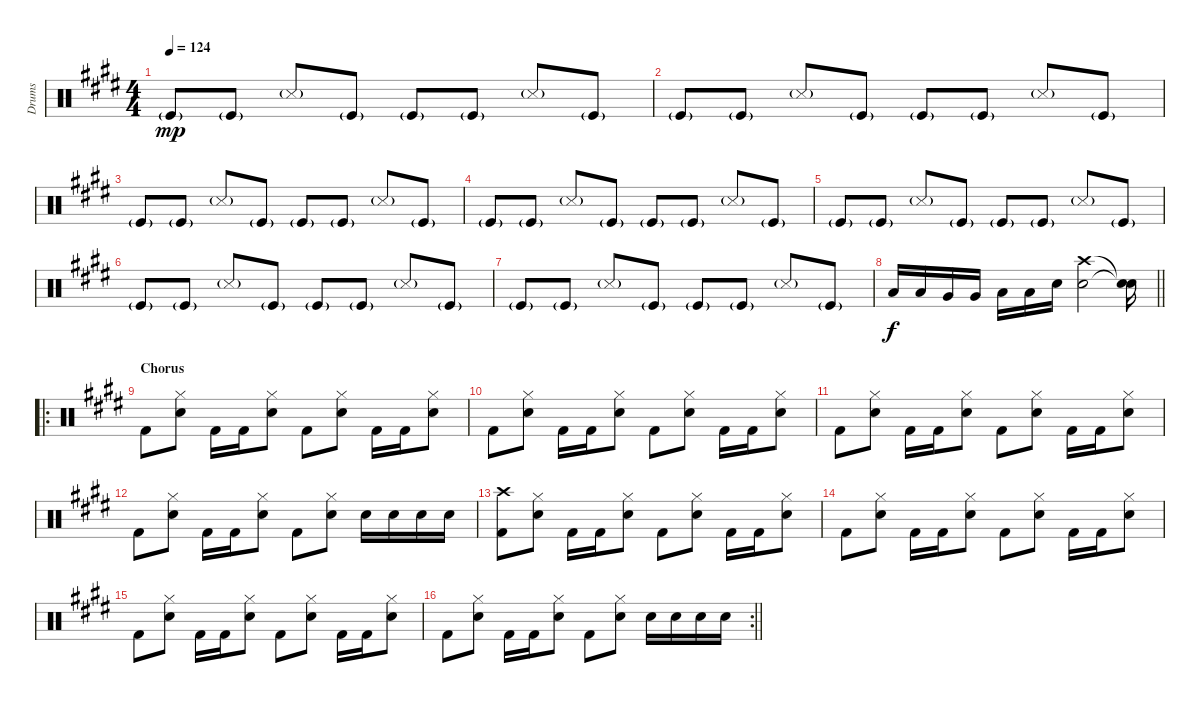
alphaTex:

\track ("Drums" "Drums") {instrument percussion}
\staff {score}
\articulation defaults
\ts (4 4)
\tempo 124
\clef neutral
\ks c#minor "Kick (hit)"{g}.8{dy mp} "Kick (hit)"{g}.8 "Metronome (hit)"{g}.8 "Kick (hit)"{g}.8 "Kick (hit)"{g}.8 "Kick (hit)"{g}.8 "Metronome (hit)"{g}.8 "Kick (hit)"{g}.8
|
"Kick (hit)"{g}.8 "Kick (hit)"{g}.8 "Metronome (hit)"{g}.8 "Kick (hit)"{g}.8 "Kick (hit)"{g}.8 "Kick (hit)"{g}.8 "Metronome (hit)"{g}.8 "Kick (hit)"{g}.8 |
"Kick (hit)"{g}.8 "Kick (hit)"{g}.8 "Metronome (hit)"{g}.8 "Kick (hit)"{g}.8 "Kick (hit)"{g}.8 "Kick (hit)"{g}.8 "Metronome (hit)"{g}.8 "Kick (hit)"{g}.8 |
"Kick (hit)"{g}.8 "Kick (hit)"{g}.8 "Metronome (hit)"{g}.8 "Kick (hit)"{g}.8 "Kick (hit)"{g}.8 "Kick (hit)"{g}.8 "Metronome (hit)"{g}.8 "Kick (hit)"{g}.8 |
"Kick (hit)"{g}.8 "Kick (hit)"{g}.8 "Metronome (hit)"{g}.8 "Kick (hit)"{g}.8 "Kick (hit)"{g}.8 "Kick (hit)"{g}.8 "Metronome (hit)"{g}.8 "Kick (hit)"{g}.8 |
"Kick (hit)"{g}.8 "Kick (hit)"{g}.8 "Metronome (hit)"{g}.8 "Kick (hit)"{g}.8 "Kick (hit)"{g}.8 "Kick (hit)"{g}.8 "Metronome (hit)"{g}.8 "Kick (hit)"{g}.8 |
"Kick (hit)"{g}.8 "Kick (hit)"{g}.8 "Metronome (hit)"{g}.8 "Kick (hit)"{g}.8 "Kick (hit)"{g}.8 "Kick (hit)"{g}.8 "Metronome (hit)"{g}.8 "Kick (hit)"{g}.8 |
\barLineRight lightlight "Low Tom (hit)".16{dy f} "Low Tom (hit)".16 "Very Low Tom (hit)".16 "Very Low Tom (hit)".16 "Low Floor Tom (hit)".16 "Low Floor Tom (hit)".16 "Snare (hit) 2".16
("Snare (hit) 2" "Crash high (hit)").2 ("Snare (hit)"{t} "Snare (hit)"{t}).16 |
\ro
\section ("" "Chorus")
"Kick (hit) 2".8 ("Snare (hit) 2" "Hi-Hat (closed)").8 "Kick (hit) 2".16 "Kick (hit) 2".16 ("Snare (hit) 2" "Hi-Hat (closed)").8 "Kick (hit) 2".8 ("Snare (hit) 2" "Hi-Hat (closed)").8 "Kick (hit) 2".16 "Kick (hit) 2".16 ("Snare (hit) 2" "Hi-Hat (closed)").8 |
"Kick (hit) 2".8 ("Snare (hit) 2" "Hi-Hat (closed)").8 "Kick (hit) 2".16 "Kick (hit) 2".16 ("Snare (hit) 2" "Hi-Hat (closed)").8 "Kick (hit) 2".8 ("Snare (hit) 2" "Hi-Hat (closed)").8 "Kick (hit) 2".16 "Kick (hit) 2".16 ("Snare (hit) 2" "Hi-Hat (closed)").8 |
"Kick (hit) 2".8 ("Snare (hit) 2" "Hi-Hat (closed)").8 "Kick (hit) 2".16 "Kick (hit) 2".16 ("Snare (hit) 2" "Hi-Hat (closed)").8 "Kick (hit) 2".8 ("Snare (hit) 2" "Hi-Hat (closed)").8 "Kick (hit) 2".16 "Kick (hit) 2".16 ("Snare (hit) 2" "Hi-Hat (closed)").8 |
"Kick (hit) 2".8 ("Snare (hit) 2" "Hi-Hat (closed)").8 "Kick (hit) 2".16 "Kick (hit) 2".16 ("Snare (hit) 2" "Hi-Hat (closed)").8 "Kick (hit) 2".8 ("Snare (hit) 2" "Hi-Hat (closed)").8 "Electric Snare (hit)".16 "Electric Snare (hit)".16 "Electric Snare (hit)".16 "Electric Snare (hit)".16 |
("Kick (hit) 2" "Crash high (hit)").8 ("Snare (hit) 2" "Hi-Hat (closed)").8 "Kick (hit) 2".16 "Kick (hit) 2".16 ("Snare (hit) 2" "Hi-Hat (closed)").8 "Kick (hit) 2".8 ("Snare (hit) 2" "Hi-Hat (closed)").8 "Kick (hit) 2".16 "Kick (hit) 2".16 ("Snare (hit) 2" "Hi-Hat (closed)").8 |
"Kick (hit) 2".8 ("Snare (hit) 2" "Hi-Hat (closed)").8 "Kick (hit) 2".16 "Kick (hit) 2".16 ("Snare (hit) 2" "Hi-Hat (closed)").8 "Kick (hit) 2".8 ("Snare (hit) 2" "Hi-Hat (closed)").8 "Kick (hit) 2".16 "Kick (hit) 2".16 ("Snare (hit) 2" "Hi-Hat (closed)").8 |
"Kick (hit) 2".8 ("Snare (hit) 2" "Hi-Hat (closed)").8 "Kick (hit) 2".16 "Kick (hit) 2".16 ("Snare (hit) 2" "Hi-Hat (closed)").8 "Kick (hit) 2".8 ("Snare (hit) 2" "Hi-Hat (closed)").8 "Kick (hit) 2".16 "Kick (hit) 2".16 ("Snare (hit) 2" "Hi-Hat (closed)").8 |
\rc 2
\barLineRight lightlight "Kick (hit) 2".8
("Snare (hit) 2" "Hi-Hat (closed)").8 "Kick (hit) 2".16 "Kick (hit) 2".16 ("Snare (hit) 2" "Hi-Hat (closed)").8 "Kick (hit) 2".8 ("Snare (hit) 2" "Hi-Hat (closed)").8 "Electric Snare (hit)".16 "Electric Snare (hit)".16 "Electric Snare (hit)".16 "Electric Snare (hit)".16
